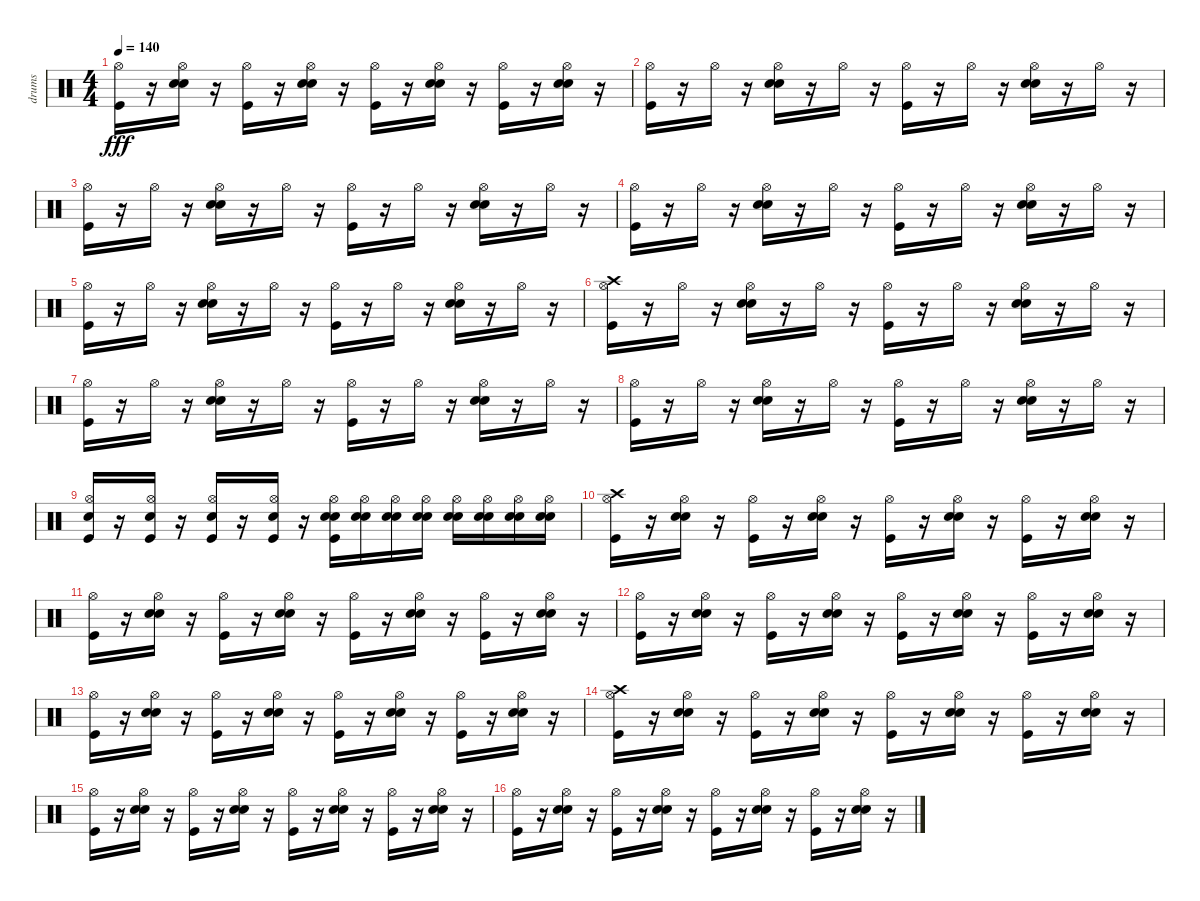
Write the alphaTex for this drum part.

\track ("drums" "drums") {instrument percussion}
\staff {score}
\articulation defaults
\ts (4 4)
\tempo 140
\clef neutral
\ks c
("Kick (hit)" "Hi-Hat (open)").16{dy fff} r.16 ("Snare (hit) 2" "Electric Snare (hit)" "Hi-Hat (open)").16 r.16 ("Hi-Hat (open)" "Kick (hit)").16 r.16 ("Hi-Hat (open)" "Snare (hit) 2" "Electric Snare (hit)").16 r.16 ("Hi-Hat (open)" "Kick (hit)").16 r.16 ("Hi-Hat (open)" "Snare (hit) 2" "Electric Snare (hit)").16 r.16 ("Hi-Hat (open)" "Kick (hit)").16 r.16 ("Hi-Hat (open)" "Snare (hit) 2" "Electric Snare (hit)").16 r.16 |
("Kick (hit)" "Hi-Hat (open)").16 r.16 "Hi-Hat (open)".16 r.16 ("Snare (hit) 2" "Electric Snare (hit)" "Hi-Hat (open)").16 r.16 "Hi-Hat (open)".16 r.16 ("Kick (hit)" "Hi-Hat (open)").16 r.16 "Hi-Hat (open)".16 r.16 ("Snare (hit) 2" "Electric Snare (hit)" "Hi-Hat (open)").16 r.16 "Hi-Hat (open)".16 r.16 |
("Hi-Hat (open)" "Kick (hit)").16 r.16 "Hi-Hat (open)".16 r.16 ("Snare (hit) 2" "Electric Snare (hit)" "Hi-Hat (open)").16 r.16 "Hi-Hat (open)".16 r.16 ("Kick (hit)" "Hi-Hat (open)").16 r.16 "Hi-Hat (open)".16 r.16 ("Snare (hit) 2" "Electric Snare (hit)" "Hi-Hat (open)").16 r.16 "Hi-Hat (open)".16 r.16 |
("Hi-Hat (open)" "Kick (hit)").16 r.16 "Hi-Hat (open)".16 r.16 ("Snare (hit) 2" "Electric Snare (hit)" "Hi-Hat (open)").16 r.16 "Hi-Hat (open)".16 r.16 ("Kick (hit)" "Hi-Hat (open)").16 r.16 "Hi-Hat (open)".16 r.16 ("Snare (hit) 2" "Electric Snare (hit)" "Hi-Hat (open)").16 r.16 "Hi-Hat (open)".16 r.16 |
("Hi-Hat (open)" "Kick (hit)").16 r.16 "Hi-Hat (open)".16 r.16 ("Snare (hit) 2" "Electric Snare (hit)" "Hi-Hat (open)").16 r.16 "Hi-Hat (open)".16 r.16 ("Kick (hit)" "Hi-Hat (open)").16 r.16 "Hi-Hat (open)".16 r.16 ("Snare (hit) 2" "Electric Snare (hit)" "Hi-Hat (open)").16 r.16 "Hi-Hat (open)".16 r.16 |
("Crash high (hit)" "Hi-Hat (open)" "Kick (hit)").16 r.16 "Hi-Hat (open)".16 r.16 ("Snare (hit) 2" "Electric Snare (hit)" "Hi-Hat (open)").16 r.16 "Hi-Hat (open)".16 r.16 ("Kick (hit)" "Hi-Hat (open)").16 r.16 "Hi-Hat (open)".16 r.16 ("Snare (hit) 2" "Electric Snare (hit)" "Hi-Hat (open)").16 r.16 "Hi-Hat (open)".16 r.16 |
("Hi-Hat (open)" "Kick (hit)").16 r.16 "Hi-Hat (open)".16 r.16 ("Snare (hit) 2" "Electric Snare (hit)" "Hi-Hat (open)").16 r.16 "Hi-Hat (open)".16 r.16 ("Kick (hit)" "Hi-Hat (open)").16 r.16 "Hi-Hat (open)".16 r.16 ("Snare (hit) 2" "Electric Snare (hit)" "Hi-Hat (open)").16 r.16 "Hi-Hat (open)".16 r.16 |
("Hi-Hat (open)" "Kick (hit)").16 r.16 "Hi-Hat (open)".16 r.16 ("Snare (hit) 2" "Electric Snare (hit)" "Hi-Hat (open)").16 r.16 "Hi-Hat (open)".16 r.16 ("Kick (hit)" "Hi-Hat (open)").16 r.16 "Hi-Hat (open)".16 r.16 ("Snare (hit) 2" "Electric Snare (hit)" "Hi-Hat (open)").16 r.16 "Hi-Hat (open)".16 r.16 |
("Hi-Hat (open)" "Kick (hit)" "Snare (hit) 2").16 r.16 ("Hi-Hat (open)" "Snare (hit) 2" "Kick (hit)").16 r.16 ("Hi-Hat (open)" "Kick (hit)" "Snare (hit) 2").16 r.16 ("Hi-Hat (open)" "Snare (hit) 2" "Kick (hit)").16 r.16 ("Electric Snare (hit)" "Hi-Hat (open)" "Snare (hit) 2" "Kick (hit)").16 ("Snare (hit) 2" "Hi-Hat (open)" "Electric Snare (hit)").16 ("Snare (hit) 2" "Hi-Hat (open)" "Electric Snare (hit)").16 ("Snare (hit) 2" "Hi-Hat (open)" "Electric Snare (hit)").16 ("Snare (hit) 2" "Hi-Hat (open)" "Electric Snare (hit)").16 ("Snare (hit) 2" "Hi-Hat (open)" "Electric Snare (hit)").16 ("Snare (hit) 2" "Hi-Hat (open)" "Electric Snare (hit)").16 ("Snare (hit) 2" "Hi-Hat (open)" "Electric Snare (hit)").16 |
("Crash high (hit)" "Hi-Hat (open)" "Kick (hit)").16 r.16 ("Snare (hit) 2" "Electric Snare (hit)" "Hi-Hat (open)").16 r.16 ("Hi-Hat (open)" "Kick (hit)").16 r.16 ("Hi-Hat (open)" "Snare (hit) 2" "Electric Snare (hit)").16 r.16 ("Hi-Hat (open)" "Kick (hit)").16 r.16 ("Hi-Hat (open)" "Snare (hit) 2" "Electric Snare (hit)").16 r.16 ("Hi-Hat (open)" "Kick (hit)").16 r.16 ("Hi-Hat (open)" "Snare (hit) 2" "Electric Snare (hit)").16 r.16 |
("Hi-Hat (open)" "Kick (hit)").16 r.16 ("Snare (hit) 2" "Electric Snare (hit)" "Hi-Hat (open)").16 r.16 ("Hi-Hat (open)" "Kick (hit)").16 r.16 ("Hi-Hat (open)" "Snare (hit) 2" "Electric Snare (hit)").16 r.16 ("Hi-Hat (open)" "Kick (hit)").16 r.16 ("Hi-Hat (open)" "Snare (hit) 2" "Electric Snare (hit)").16 r.16 ("Hi-Hat (open)" "Kick (hit)").16 r.16 ("Hi-Hat (open)" "Snare (hit) 2" "Electric Snare (hit)").16 r.16 |
("Hi-Hat (open)" "Kick (hit)").16 r.16 ("Snare (hit) 2" "Electric Snare (hit)" "Hi-Hat (open)").16 r.16 ("Hi-Hat (open)" "Kick (hit)").16 r.16 ("Hi-Hat (open)" "Snare (hit) 2" "Electric Snare (hit)").16 r.16 ("Hi-Hat (open)" "Kick (hit)").16 r.16 ("Hi-Hat (open)" "Snare (hit) 2" "Electric Snare (hit)").16 r.16 ("Hi-Hat (open)" "Kick (hit)").16 r.16 ("Hi-Hat (open)" "Snare (hit) 2" "Electric Snare (hit)").16 r.16 |
("Hi-Hat (open)" "Kick (hit)").16 r.16 ("Snare (hit) 2" "Electric Snare (hit)" "Hi-Hat (open)").16 r.16 ("Hi-Hat (open)" "Kick (hit)").16 r.16 ("Hi-Hat (open)" "Snare (hit) 2" "Electric Snare (hit)").16 r.16 ("Hi-Hat (open)" "Kick (hit)").16 r.16 ("Hi-Hat (open)" "Snare (hit) 2" "Electric Snare (hit)").16 r.16 ("Hi-Hat (open)" "Kick (hit)").16 r.16 ("Hi-Hat (open)" "Snare (hit) 2" "Electric Snare (hit)").16 r.16 |
("Hi-Hat (open)" "Kick (hit)" "Crash high (hit)").16 r.16 ("Snare (hit) 2" "Electric Snare (hit)" "Hi-Hat (open)").16 r.16 ("Hi-Hat (open)" "Kick (hit)").16 r.16 ("Hi-Hat (open)" "Snare (hit) 2" "Electric Snare (hit)").16 r.16 ("Hi-Hat (open)" "Kick (hit)").16 r.16 ("Hi-Hat (open)" "Snare (hit) 2" "Electric Snare (hit)").16 r.16 ("Hi-Hat (open)" "Kick (hit)").16 r.16 ("Hi-Hat (open)" "Snare (hit) 2" "Electric Snare (hit)").16 r.16 |
("Hi-Hat (open)" "Kick (hit)").16 r.16 ("Snare (hit) 2" "Electric Snare (hit)" "Hi-Hat (open)").16 r.16 ("Hi-Hat (open)" "Kick (hit)").16 r.16 ("Hi-Hat (open)" "Snare (hit) 2" "Electric Snare (hit)").16 r.16 ("Hi-Hat (open)" "Kick (hit)").16 r.16 ("Hi-Hat (open)" "Snare (hit) 2" "Electric Snare (hit)").16 r.16 ("Hi-Hat (open)" "Kick (hit)").16 r.16 ("Hi-Hat (open)" "Snare (hit) 2" "Electric Snare (hit)").16 r.16 |
("Kick (hit)" "Hi-Hat (open)").16 r.16 ("Snare (hit) 2" "Electric Snare (hit)" "Hi-Hat (open)").16 r.16 ("Hi-Hat (open)" "Kick (hit)").16 r.16 ("Hi-Hat (open)" "Snare (hit) 2" "Electric Snare (hit)").16 r.16 ("Hi-Hat (open)" "Kick (hit)").16 r.16 ("Hi-Hat (open)" "Snare (hit) 2" "Electric Snare (hit)").16 r.16 ("Hi-Hat (open)" "Kick (hit)").16 r.16 ("Hi-Hat (open)" "Snare (hit) 2" "Electric Snare (hit)").16 r.16
